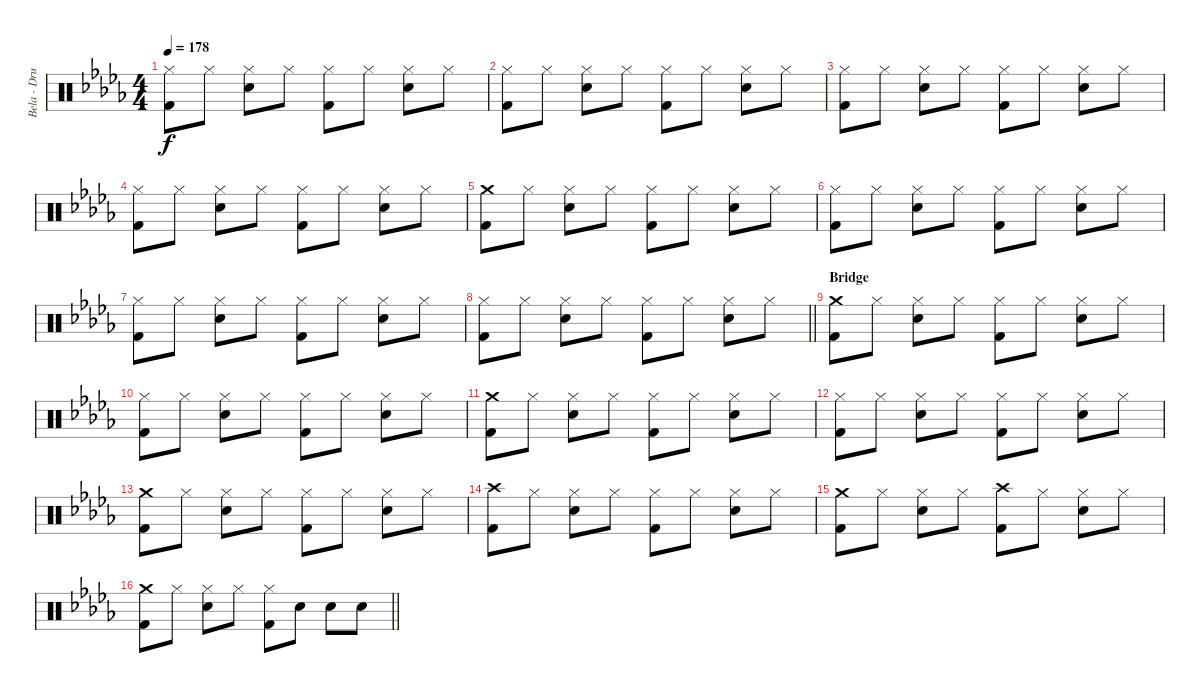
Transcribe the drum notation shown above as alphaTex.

\track ("Bela - Drums" "Bela - Dru") {instrument percussion}
\staff {score}
\articulation defaults
\ts (4 4)
\tempo 178
\clef neutral
\ks db
("Hi-Hat (closed)" "Kick (hit) 2").8{dy f} "Hi-Hat (closed)".8 ("Hi-Hat (closed)" "Snare (hit) 2").8 "Hi-Hat (closed)".8 ("Hi-Hat (closed)" "Kick (hit) 2").8 "Hi-Hat (closed)".8 ("Hi-Hat (closed)" "Snare (hit) 2").8 "Hi-Hat (closed)".8 |
("Hi-Hat (closed)" "Kick (hit) 2").8 "Hi-Hat (closed)".8 ("Hi-Hat (closed)" "Snare (hit) 2").8 "Hi-Hat (closed)".8 ("Hi-Hat (closed)" "Kick (hit) 2").8 "Hi-Hat (closed)".8 ("Hi-Hat (closed)" "Snare (hit) 2").8 "Hi-Hat (closed)".8 |
("Hi-Hat (closed)" "Kick (hit) 2").8 "Hi-Hat (closed)".8 ("Hi-Hat (closed)" "Snare (hit) 2").8 "Hi-Hat (closed)".8 ("Hi-Hat (closed)" "Kick (hit) 2").8 "Hi-Hat (closed)".8 ("Hi-Hat (closed)" "Snare (hit) 2").8 "Hi-Hat (closed)".8 |
("Hi-Hat (closed)" "Kick (hit) 2").8 "Hi-Hat (closed)".8 ("Hi-Hat (closed)" "Snare (hit) 2").8 "Hi-Hat (closed)".8 ("Hi-Hat (closed)" "Kick (hit) 2").8 "Hi-Hat (closed)".8 ("Hi-Hat (closed)" "Snare (hit) 2").8 "Hi-Hat (closed)".8 |
("Crash medium (hit)" "Kick (hit) 2").8 "Hi-Hat (closed)".8 ("Hi-Hat (closed)" "Snare (hit) 2").8 "Hi-Hat (closed)".8 ("Hi-Hat (closed)" "Kick (hit) 2").8 "Hi-Hat (closed)".8 ("Hi-Hat (closed)" "Snare (hit) 2").8 "Hi-Hat (closed)".8 |
("Hi-Hat (closed)" "Kick (hit) 2").8 "Hi-Hat (closed)".8 ("Hi-Hat (closed)" "Snare (hit) 2").8 "Hi-Hat (closed)".8 ("Hi-Hat (closed)" "Kick (hit) 2").8 "Hi-Hat (closed)".8 ("Hi-Hat (closed)" "Snare (hit) 2").8 "Hi-Hat (closed)".8 |
("Hi-Hat (closed)" "Kick (hit) 2").8 "Hi-Hat (closed)".8 ("Hi-Hat (closed)" "Snare (hit) 2").8 "Hi-Hat (closed)".8 ("Hi-Hat (closed)" "Kick (hit) 2").8 "Hi-Hat (closed)".8 ("Hi-Hat (closed)" "Snare (hit) 2").8 "Hi-Hat (closed)".8 |
\barLineRight lightlight
("Hi-Hat (closed)" "Kick (hit) 2").8 "Hi-Hat (closed)".8 ("Hi-Hat (closed)" "Snare (hit) 2").8 "Hi-Hat (closed)".8 ("Hi-Hat (closed)" "Kick (hit) 2").8 "Hi-Hat (closed)".8 ("Hi-Hat (closed)" "Snare (hit) 2").8 "Hi-Hat (closed)".8 |
\section ("" "Bridge")
("Crash medium (hit)" "Kick (hit) 2").8 "Hi-Hat (closed)".8 ("Hi-Hat (closed)" "Snare (hit) 2").8 "Hi-Hat (closed)".8 ("Hi-Hat (closed)" "Kick (hit) 2").8 "Hi-Hat (closed)".8 ("Hi-Hat (closed)" "Snare (hit) 2").8 "Hi-Hat (closed)".8 |
("Hi-Hat (closed)" "Kick (hit) 2").8 "Hi-Hat (closed)".8 ("Hi-Hat (closed)" "Snare (hit) 2").8 "Hi-Hat (closed)".8 ("Hi-Hat (closed)" "Kick (hit) 2").8 "Hi-Hat (closed)".8 ("Hi-Hat (closed)" "Snare (hit) 2").8 "Hi-Hat (closed)".8 |
("Crash medium (hit)" "Kick (hit) 2").8 "Hi-Hat (closed)".8 ("Hi-Hat (closed)" "Snare (hit) 2").8 "Hi-Hat (closed)".8 ("Hi-Hat (closed)" "Kick (hit) 2").8 "Hi-Hat (closed)".8 ("Hi-Hat (closed)" "Snare (hit) 2").8 "Hi-Hat (closed)".8 |
("Hi-Hat (closed)" "Kick (hit) 2").8 "Hi-Hat (closed)".8 ("Hi-Hat (closed)" "Snare (hit) 2").8 "Hi-Hat (closed)".8 ("Hi-Hat (closed)" "Kick (hit) 2").8 "Hi-Hat (closed)".8 ("Hi-Hat (closed)" "Snare (hit) 2").8 "Hi-Hat (closed)".8 |
("Crash medium (hit)" "Kick (hit) 2").8 "Hi-Hat (closed)".8 ("Hi-Hat (closed)" "Snare (hit) 2").8 "Hi-Hat (closed)".8 ("Hi-Hat (closed)" "Kick (hit) 2").8 "Hi-Hat (closed)".8 ("Hi-Hat (closed)" "Snare (hit) 2").8 "Hi-Hat (closed)".8 |
("Crash high (hit)" "Kick (hit) 2").8 "Hi-Hat (closed)".8 ("Hi-Hat (closed)" "Snare (hit) 2").8 "Hi-Hat (closed)".8 ("Hi-Hat (closed)" "Kick (hit) 2").8 "Hi-Hat (closed)".8 ("Hi-Hat (closed)" "Snare (hit) 2").8 "Hi-Hat (closed)".8 |
("Crash medium (hit)" "Kick (hit) 2").8 "Hi-Hat (closed)".8 ("Hi-Hat (closed)" "Snare (hit) 2").8 "Hi-Hat (closed)".8 ("Crash high (hit)" "Kick (hit) 2").8 "Hi-Hat (closed)".8 ("Hi-Hat (closed)" "Snare (hit) 2").8 "Hi-Hat (closed)".8 |
\barLineRight lightlight
("Crash medium (hit)" "Kick (hit) 2").8 "Hi-Hat (closed)".8 ("Hi-Hat (closed)" "Snare (hit) 2").8 "Hi-Hat (closed)".8 ("Hi-Hat (closed)" "Kick (hit) 2").8 "Snare (hit) 2".8 "Snare (hit) 2".8 "Snare (hit) 2".8
